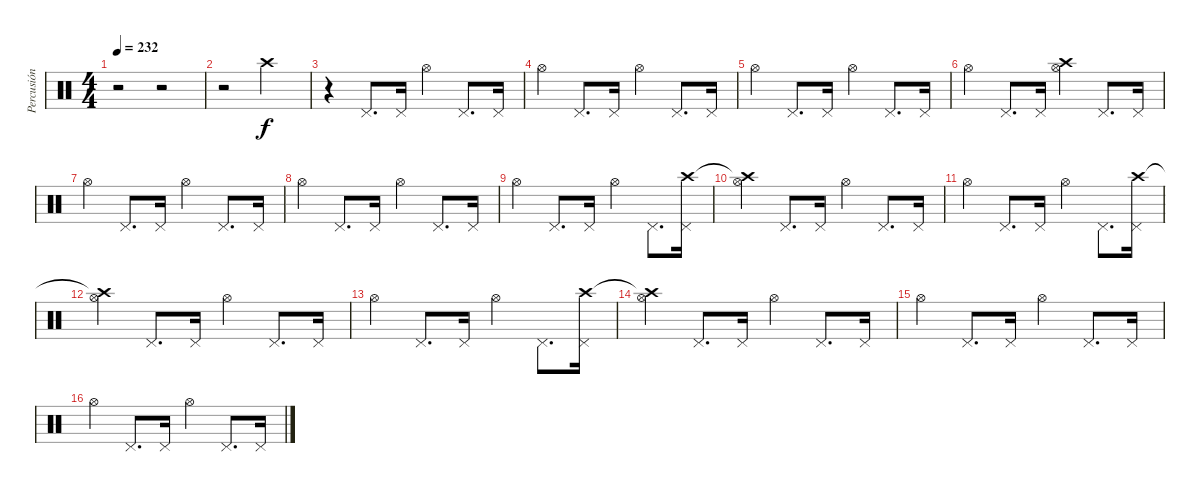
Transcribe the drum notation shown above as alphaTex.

\track ("Percusión" "Percusión") {instrument percussion}
\staff {score}
\articulation defaults
\ts (4 4)
\tempo 232
\clef neutral
\ks c
r.2{dy f} r.2 |
r.2 "Crash high (hit)".2 |
r.4 "Pedal Hi-Hat (hit)".8{d} "Pedal Hi-Hat (hit)".16 "Hi-Hat (open)".4 "Pedal Hi-Hat (hit)".8{d} "Pedal Hi-Hat (hit)".16 |
"Hi-Hat (open)".4 "Pedal Hi-Hat (hit)".8{d} "Pedal Hi-Hat (hit)".16 "Hi-Hat (open)".4 "Pedal Hi-Hat (hit)".8{d} "Pedal Hi-Hat (hit)".16 |
"Hi-Hat (open)".4 "Pedal Hi-Hat (hit)".8{d} "Pedal Hi-Hat (hit)".16 "Hi-Hat (open)".4 "Pedal Hi-Hat (hit)".8{d} "Pedal Hi-Hat (hit)".16 |
"Hi-Hat (open)".4 "Pedal Hi-Hat (hit)".8{d} "Pedal Hi-Hat (hit)".16 ("Hi-Hat (open)" "Crash high (hit)").4 "Pedal Hi-Hat (hit)".8{d} "Pedal Hi-Hat (hit)".16 |
"Hi-Hat (open)".4 "Pedal Hi-Hat (hit)".8{d} "Pedal Hi-Hat (hit)".16 "Hi-Hat (open)".4 "Pedal Hi-Hat (hit)".8{d} "Pedal Hi-Hat (hit)".16 |
"Hi-Hat (open)".4 "Pedal Hi-Hat (hit)".8{d} "Pedal Hi-Hat (hit)".16 "Hi-Hat (open)".4 "Pedal Hi-Hat (hit)".8{d} "Pedal Hi-Hat (hit)".16 |
"Hi-Hat (open)".4 "Pedal Hi-Hat (hit)".8{d} "Pedal Hi-Hat (hit)".16 "Hi-Hat (open)".4 "Pedal Hi-Hat (hit)".8{d} ("Pedal Hi-Hat (hit)" "Crash high (hit)").16 |
("Hi-Hat (open)" "Crash high (hit)"{t}).4 "Pedal Hi-Hat (hit)".8{d} "Pedal Hi-Hat (hit)".16 "Hi-Hat (open)".4 "Pedal Hi-Hat (hit)".8{d} "Pedal Hi-Hat (hit)".16 |
"Hi-Hat (open)".4 "Pedal Hi-Hat (hit)".8{d} "Pedal Hi-Hat (hit)".16 "Hi-Hat (open)".4 "Pedal Hi-Hat (hit)".8{d} ("Pedal Hi-Hat (hit)" "Crash high (hit)").16 |
("Hi-Hat (open)" "Crash high (hit)"{t}).4 "Pedal Hi-Hat (hit)".8{d} "Pedal Hi-Hat (hit)".16 "Hi-Hat (open)".4 "Pedal Hi-Hat (hit)".8{d} "Pedal Hi-Hat (hit)".16 |
"Hi-Hat (open)".4 "Pedal Hi-Hat (hit)".8{d} "Pedal Hi-Hat (hit)".16 "Hi-Hat (open)".4 "Pedal Hi-Hat (hit)".8{d} ("Pedal Hi-Hat (hit)" "Crash high (hit)").16 |
("Hi-Hat (open)" "Crash high (hit)"{t}).4 "Pedal Hi-Hat (hit)".8{d} "Pedal Hi-Hat (hit)".16 "Hi-Hat (open)".4 "Pedal Hi-Hat (hit)".8{d} "Pedal Hi-Hat (hit)".16 |
"Hi-Hat (open)".4 "Pedal Hi-Hat (hit)".8{d} "Pedal Hi-Hat (hit)".16 "Hi-Hat (open)".4 "Pedal Hi-Hat (hit)".8{d} "Pedal Hi-Hat (hit)".16 |
"Hi-Hat (open)".4 "Pedal Hi-Hat (hit)".8{d} "Pedal Hi-Hat (hit)".16 "Hi-Hat (open)".4 "Pedal Hi-Hat (hit)".8{d} "Pedal Hi-Hat (hit)".16
